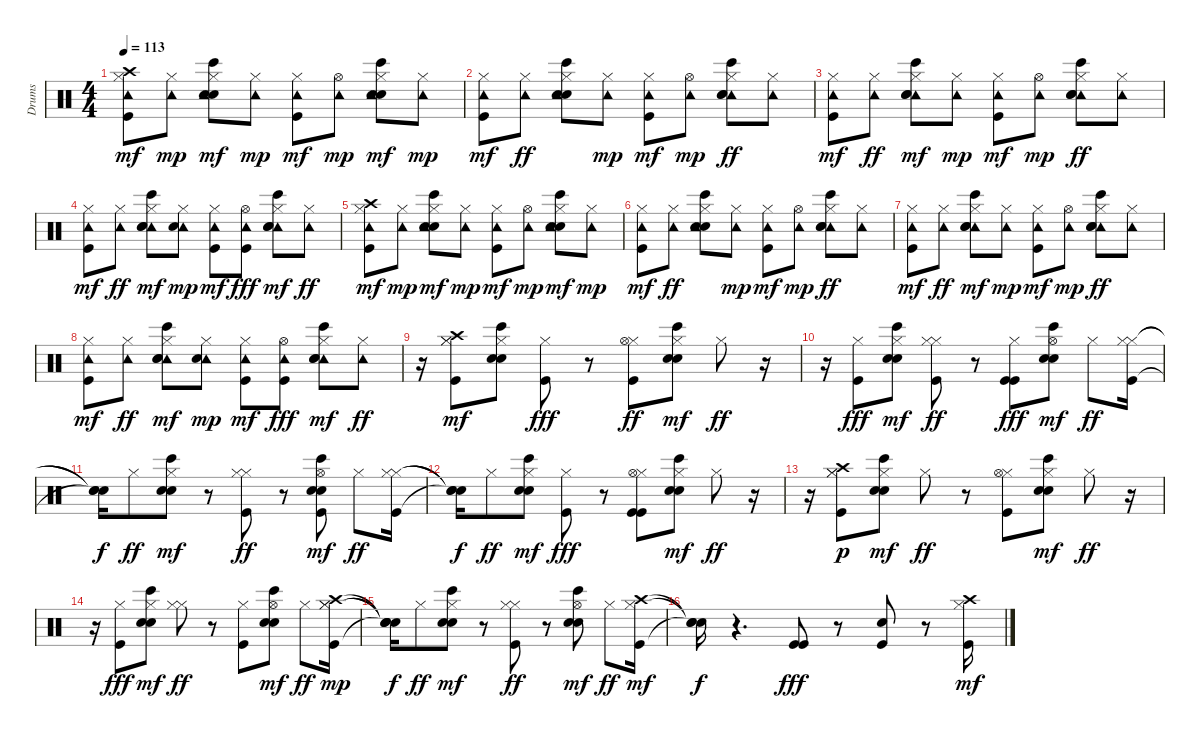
\track ("Drums" "Drums") {instrument percussion}
\staff {score}
\articulation defaults
\ts (4 4)
\tempo 113
\clef neutral
\ks c
("Kick (hit)" "Hi-Hat (closed)" "Crash high (hit)" "Tambourine (hit)").8{dy mf} ("Tambourine (hit)" "Hi-Hat (closed)").8{dy mp} ("Hi-Hat (closed)" "Bongo High (hit)" "Snare (hit) 2" "Hand Clap (hit)" "Tambourine (hit)").8{dy mf} ("Hi-Hat (closed)" "Tambourine (hit)").8{dy mp} ("Kick (hit)" "Hi-Hat (closed)" "Tambourine (hit)").8{dy mf} ("Tambourine (hit)" "Hi-Hat (open)").8{dy mp} ("Hi-Hat (closed)" "Bongo High (hit)" "Snare (hit) 2" "Hand Clap (hit)" "Tambourine (hit)").8{dy mf} ("Hi-Hat (closed)" "Tambourine (hit)").8{dy mp} |
("Kick (hit)" "Hi-Hat (closed)" "Tambourine (hit)").8{dy mf} ("Tambourine (hit)" "Hi-Hat (closed)").8{dy ff} ("Bongo High (hit)" "Snare (hit) 2" "Hand Clap (hit)" "Tambourine (hit)" "Hi-Hat (closed)").8 ("Hi-Hat (closed)" "Tambourine (hit)").8{dy mp} ("Kick (hit)" "Hi-Hat (closed)" "Tambourine (hit)").8{dy mf} ("Tambourine (hit)" "Hi-Hat (open)").8{dy mp} ("Tambourine (hit)" "Bongo High (hit)" "Snare (hit) 2" "Hand Clap (hit)" "Hi-Hat (closed)").8{dy ff} ("Tambourine (hit)" "Hi-Hat (closed)").8 |
("Kick (hit)" "Hi-Hat (closed)" "Tambourine (hit)").8{dy mf} ("Tambourine (hit)" "Hi-Hat (closed)").8{dy ff} ("Tambourine (hit)" "Hi-Hat (closed)" "Bongo High (hit)" "Snare (hit) 2" "Hand Clap (hit)").8{dy mf} ("Hi-Hat (closed)" "Tambourine (hit)").8{dy mp} ("Kick (hit)" "Hi-Hat (closed)" "Tambourine (hit)").8{dy mf} ("Tambourine (hit)" "Hi-Hat (open)").8{dy mp} ("Tambourine (hit)" "Bongo High (hit)" "Snare (hit) 2" "Hand Clap (hit)" "Hi-Hat (closed)").8{dy ff} ("Tambourine (hit)" "Hi-Hat (closed)").8 |
("Kick (hit)" "Hi-Hat (closed)" "Tambourine (hit)").8{dy mf} ("Tambourine (hit)" "Hi-Hat (closed)").8{dy ff} ("Hi-Hat (closed)" "Tambourine (hit)" "Bongo High (hit)" "Snare (hit) 2" "Hand Clap (hit)").8{dy mf} ("Hi-Hat (closed)" "Tambourine (hit)" "Snare (hit) 2").8{dy mp} ("Kick (hit)" "Hi-Hat (closed)" "Tambourine (hit)").8{dy mf} ("Hi-Hat (open)" "Tambourine (hit)" "Kick (hit)").8{dy fff} ("Hi-Hat (closed)" "Tambourine (hit)" "Bongo High (hit)" "Snare (hit) 2" "Hand Clap (hit)").8{dy mf} ("Tambourine (hit)" "Hi-Hat (closed)").8{dy ff} |
("Kick (hit)" "Hi-Hat (closed)" "Crash high (hit)" "Tambourine (hit)").8{dy mf} ("Tambourine (hit)" "Hi-Hat (closed)").8{dy mp} ("Hi-Hat (closed)" "Bongo High (hit)" "Snare (hit) 2" "Hand Clap (hit)" "Tambourine (hit)").8{dy mf} ("Hi-Hat (closed)" "Tambourine (hit)").8{dy mp} ("Kick (hit)" "Hi-Hat (closed)" "Tambourine (hit)").8{dy mf} ("Tambourine (hit)" "Hi-Hat (open)").8{dy mp} ("Hi-Hat (closed)" "Bongo High (hit)" "Snare (hit) 2" "Hand Clap (hit)" "Tambourine (hit)").8{dy mf} ("Hi-Hat (closed)" "Tambourine (hit)").8{dy mp} |
("Kick (hit)" "Hi-Hat (closed)" "Tambourine (hit)").8{dy mf} ("Tambourine (hit)" "Hi-Hat (closed)").8{dy ff} ("Bongo High (hit)" "Snare (hit) 2" "Hand Clap (hit)" "Tambourine (hit)" "Hi-Hat (closed)").8 ("Hi-Hat (closed)" "Tambourine (hit)").8{dy mp} ("Kick (hit)" "Hi-Hat (closed)" "Tambourine (hit)").8{dy mf} ("Tambourine (hit)" "Hi-Hat (open)").8{dy mp} ("Tambourine (hit)" "Bongo High (hit)" "Snare (hit) 2" "Hand Clap (hit)" "Hi-Hat (closed)").8{dy ff} ("Tambourine (hit)" "Hi-Hat (closed)").8 |
("Kick (hit)" "Hi-Hat (closed)" "Tambourine (hit)").8{dy mf} ("Tambourine (hit)" "Hi-Hat (closed)").8{dy ff} ("Tambourine (hit)" "Hi-Hat (closed)" "Bongo High (hit)" "Snare (hit) 2" "Hand Clap (hit)").8{dy mf} ("Hi-Hat (closed)" "Tambourine (hit)").8{dy mp} ("Kick (hit)" "Hi-Hat (closed)" "Tambourine (hit)").8{dy mf} ("Tambourine (hit)" "Hi-Hat (open)").8{dy mp} ("Tambourine (hit)" "Bongo High (hit)" "Snare (hit) 2" "Hand Clap (hit)" "Hi-Hat (closed)").8{dy ff} ("Tambourine (hit)" "Hi-Hat (closed)").8 |
("Kick (hit)" "Hi-Hat (closed)" "Tambourine (hit)").8{dy mf} ("Tambourine (hit)" "Hi-Hat (closed)").8{dy ff} ("Hi-Hat (closed)" "Tambourine (hit)" "Bongo High (hit)" "Snare (hit) 2" "Hand Clap (hit)").8{dy mf} ("Hi-Hat (closed)" "Tambourine (hit)" "Snare (hit) 2").8{dy mp} ("Kick (hit)" "Hi-Hat (closed)" "Tambourine (hit)").8{dy mf} ("Hi-Hat (open)" "Tambourine (hit)" "Kick (hit)").8{dy fff} ("Hi-Hat (closed)" "Tambourine (hit)" "Bongo High (hit)" "Snare (hit) 2" "Hand Clap (hit)").8{dy mf} ("Tambourine (hit)" "Hi-Hat (closed)").8{dy ff} |
r.16 ("Kick (hit)" "Hi-Hat (closed)" "Crash high (hit)" "Hi-Hat (closed)").8{dy mf} ("Hi-Hat (closed)" "Bongo High (hit)" "Snare (hit) 2" "Hand Clap (hit)").8 ("Hi-Hat (closed)" "Kick (hit)").8{dy fff} r.8 ("Kick (hit)" "Hi-Hat (closed)" "Hi-Hat (open)").8{dy ff} ("Hi-Hat (closed)" "Bongo High (hit)" "Snare (hit) 2" "Hand Clap (hit)").8{dy mf} "Hi-Hat (closed)".8{dy ff} r.16 |
r.16 ("Kick (hit)" "Hi-Hat (closed)").8{dy fff} ("Hi-Hat (closed)" "Bongo High (hit)" "Snare (hit) 2" "Hand Clap (hit)").8{dy mf} ("Hi-Hat (closed)" "Kick (hit)" "Hi-Hat (closed)").8{dy ff} r.8 ("Kick (hit)" "Hi-Hat (closed)" "Kick (hit)").8{dy fff} ("Hi-Hat (open)" "Bongo High (hit)" "Snare (hit) 2" "Hand Clap (hit)").8{dy mf} "Hi-Hat (closed)".8{dy ff} ("Hi-Hat (closed)" "Kick (hit)" "Hi-Hat (closed)").16 |
("Snare (hit)"{t} "Snare (hit)"{t} "Snare (hit)"{t}).16{dy f} "Hi-Hat (closed)".8{dy ff} ("Hi-Hat (closed)" "Bongo High (hit)" "Snare (hit) 2" "Hand Clap (hit)").8{dy mf} r.8 ("Kick (hit)" "Hi-Hat (closed)" "Hi-Hat (closed)").8{dy ff} r.8 ("Kick (hit)" "Hi-Hat (open)" "Bongo High (hit)" "Snare (hit) 2" "Hand Clap (hit)").8{dy mf} "Hi-Hat (closed)".8{dy ff} ("Hi-Hat (closed)" "Kick (hit)" "Hi-Hat (closed)").16 |
("Snare (hit)"{t} "Snare (hit)"{t} "Snare (hit)"{t}).16{dy f} "Hi-Hat (closed)".8{dy ff} ("Hi-Hat (closed)" "Bongo High (hit)" "Snare (hit) 2" "Hand Clap (hit)").8{dy mf} ("Hi-Hat (closed)" "Kick (hit)").8{dy fff} r.8 ("Kick (hit)" "Hi-Hat (closed)" "Hi-Hat (open)" "Kick (hit)").8 ("Hi-Hat (closed)" "Bongo High (hit)" "Snare (hit) 2" "Hand Clap (hit)").8{dy mf} "Hi-Hat (closed)".8{dy ff} r.16 |
r.16 ("Kick (hit)" "Hi-Hat (closed)" "Crash high (hit)" "Hi-Hat (closed)").8{dy p} ("Hi-Hat (closed)" "Bongo High (hit)" "Snare (hit) 2" "Hand Clap (hit)").8{dy mf} "Hi-Hat (closed)".8{dy ff} r.8 ("Kick (hit)" "Hi-Hat (closed)" "Hi-Hat (open)").8 ("Hi-Hat (closed)" "Bongo High (hit)" "Snare (hit) 2" "Hand Clap (hit)").8{dy mf} "Hi-Hat (closed)".8{dy ff} r.16 |
r.16 ("Kick (hit)" "Hi-Hat (closed)").8{dy fff} ("Hi-Hat (closed)" "Bongo High (hit)" "Snare (hit) 2" "Hand Clap (hit)").8{dy mf} ("Hi-Hat (closed)" "Hi-Hat (closed)").8{dy ff} r.8 ("Kick (hit)" "Hi-Hat (closed)").8 ("Hi-Hat (open)" "Bongo High (hit)" "Snare (hit) 2" "Hand Clap (hit)").8{dy mf} "Hi-Hat (closed)".8{dy ff} ("Hi-Hat (closed)" "Kick (hit)" "Hi-Hat (closed)" "Crash high (hit)").16{dy mp} |
("Snare (hit)"{t} "Snare (hit)"{t} "Snare (hit)"{t} "Snare (hit)"{t}).16{dy f} "Hi-Hat (closed)".8{dy ff} ("Hi-Hat (closed)" "Bongo High (hit)" "Snare (hit) 2" "Hand Clap (hit)").8{dy mf} r.8 ("Hi-Hat (closed)" "Kick (hit)" "Hi-Hat (closed)").8{dy ff} r.8 ("Hi-Hat (open)" "Bongo High (hit)" "Snare (hit) 2" "Hand Clap (hit)").8{dy mf} "Hi-Hat (closed)".8{dy ff} ("Hi-Hat (closed)" "Kick (hit)" "Crash high (hit)").16{dy mf} |
("Snare (hit)"{t} "Snare (hit)"{t} "Snare (hit)"{t}).16{dy f} r.4{d} ("Kick (hit)" "Kick (hit)").8{dy fff} r.8 ("Kick (hit)" "Snare (hit) 2").8 r.8 ("Kick (hit)" "Hi-Hat (closed)" "Crash high (hit)").16{dy mf}
